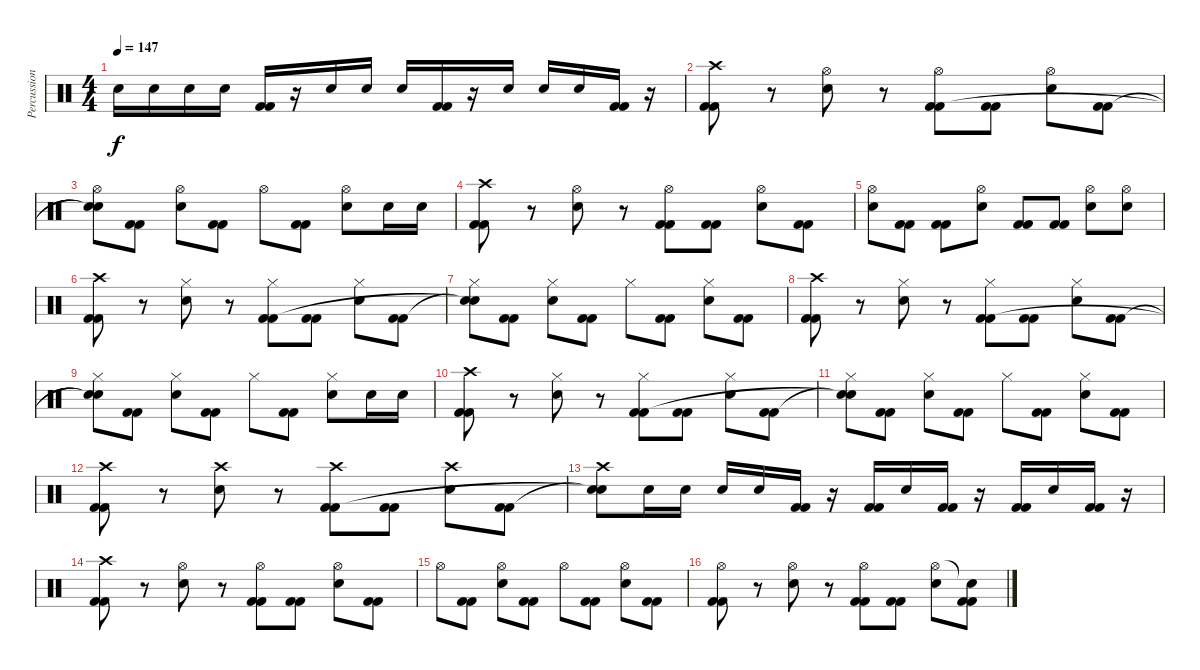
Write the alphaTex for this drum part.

\track ("Percussions" "Percussion") {instrument percussion}
\staff {score}
\articulation defaults
\ts (4 4)
\tempo 147
\clef neutral
\ks c "Snare (hit) 2".16{dy f} "Snare (hit) 2".16 "Snare (hit) 2".16 "Snare (hit) 2".16
("Kick (hit) 2" "Kick (hit) 2").16 r.16 "Snare (hit) 2".16 "Snare (hit) 2".16 "Snare (hit) 2".16 ("Kick (hit) 2" "Kick (hit) 2").16 r.16 "Snare (hit) 2".16 "Snare (hit) 2".16 "Snare (hit) 2".16 ("Kick (hit) 2" "Kick (hit) 2").16 r.16 |
("Crash high (hit)" "Kick (hit) 2" "Kick (hit) 2").8 r.8 ("Hi-Hat (open)" "Snare (hit) 2").8 r.8 ("Hi-Hat (open)" "Kick (hit) 2" "Kick (hit) 2").8 ("Kick (hit) 2" "Kick (hit) 2").8 ("Hi-Hat (open)" "Snare (hit) 2").8 ("Kick (hit) 2" "Kick (hit) 2").8 |
("Hi-Hat (open)" "Snare (hit)"{t} "Snare (hit)"{t}).8 ("Kick (hit) 2" "Kick (hit) 2").8 ("Hi-Hat (open)" "Snare (hit) 2").8 ("Kick (hit) 2" "Kick (hit) 2").8 "Hi-Hat (open)".8 ("Kick (hit) 2" "Kick (hit) 2").8 ("Hi-Hat (open)" "Snare (hit) 2").8 "Snare (hit) 2".16 "Snare (hit) 2".16 |
("Crash high (hit)" "Kick (hit) 2" "Kick (hit) 2").8 r.8 ("Hi-Hat (open)" "Snare (hit) 2").8 r.8 ("Hi-Hat (open)" "Kick (hit) 2" "Kick (hit) 2").8 ("Kick (hit) 2" "Kick (hit) 2").8 ("Hi-Hat (open)" "Snare (hit) 2").8 ("Kick (hit) 2" "Kick (hit) 2").8 |
("Hi-Hat (open)" "Snare (hit) 2").8 ("Kick (hit) 2" "Kick (hit) 2").8 ("Kick (hit) 2" "Kick (hit) 2").8 ("Hi-Hat (open)" "Snare (hit) 2").8 ("Kick (hit) 2" "Kick (hit) 2").8 ("Kick (hit) 2" "Kick (hit) 2").8 ("Hi-Hat (open)" "Snare (hit) 2").8 ("Hi-Hat (open)" "Snare (hit) 2").8 |
("Crash high (hit)" "Kick (hit) 2" "Kick (hit) 2").8 r.8 ("Hi-Hat (closed)" "Snare (hit) 2").8 r.8 ("Hi-Hat (closed)" "Kick (hit) 2" "Kick (hit) 2").8 ("Kick (hit) 2" "Kick (hit) 2").8 ("Hi-Hat (closed)" "Snare (hit) 2").8 ("Kick (hit) 2" "Kick (hit) 2").8 |
("Hi-Hat (closed)" "Snare (hit)"{t} "Snare (hit)"{t}).8 ("Kick (hit) 2" "Kick (hit) 2").8 ("Hi-Hat (closed)" "Snare (hit) 2").8 ("Kick (hit) 2" "Kick (hit) 2").8 "Hi-Hat (closed)".8 ("Kick (hit) 2" "Kick (hit) 2").8 ("Hi-Hat (closed)" "Snare (hit) 2").8 ("Kick (hit) 2" "Kick (hit) 2").8 |
("Crash high (hit)" "Kick (hit) 2" "Kick (hit) 2").8 r.8 ("Hi-Hat (closed)" "Snare (hit) 2").8 r.8 ("Hi-Hat (closed)" "Kick (hit) 2" "Kick (hit) 2").8 ("Kick (hit) 2" "Kick (hit) 2").8 ("Hi-Hat (closed)" "Snare (hit) 2").8 ("Kick (hit) 2" "Kick (hit) 2").8 |
("Hi-Hat (closed)" "Snare (hit)"{t} "Snare (hit)"{t}).8 ("Kick (hit) 2" "Kick (hit) 2").8 ("Hi-Hat (closed)" "Snare (hit) 2").8 ("Kick (hit) 2" "Kick (hit) 2").8 "Hi-Hat (closed)".8 ("Kick (hit) 2" "Kick (hit) 2").8 ("Hi-Hat (closed)" "Snare (hit) 2").8 "Snare (hit) 2".16 "Snare (hit) 2".16 |
("Crash high (hit)" "Kick (hit) 2" "Kick (hit) 2").8 r.8 ("Hi-Hat (closed)" "Snare (hit) 2").8 r.8 ("Hi-Hat (closed)" "Kick (hit) 2" "Kick (hit) 2").8 ("Kick (hit) 2" "Kick (hit) 2").8 ("Hi-Hat (closed)" "Snare (hit) 2").8 ("Kick (hit) 2" "Kick (hit) 2").8 |
("Hi-Hat (closed)" "Snare (hit)"{t} "Snare (hit)"{t}).8 ("Kick (hit) 2" "Kick (hit) 2").8 ("Hi-Hat (closed)" "Snare (hit) 2").8 ("Kick (hit) 2" "Kick (hit) 2").8 "Hi-Hat (closed)".8 ("Kick (hit) 2" "Kick (hit) 2").8 ("Hi-Hat (closed)" "Snare (hit) 2").8 ("Kick (hit) 2" "Kick (hit) 2").8 |
("Crash high (hit)" "Kick (hit) 2" "Kick (hit) 2").8 r.8 ("Crash high (hit)" "Snare (hit) 2").8 r.8 ("Crash high (hit)" "Kick (hit) 2" "Kick (hit) 2").8 ("Kick (hit) 2" "Kick (hit) 2").8 ("Crash high (hit)" "Snare (hit) 2").8 ("Kick (hit) 2" "Kick (hit) 2").8 |
("Crash high (hit)" "Snare (hit)"{t} "Snare (hit)"{t}).8 "Snare (hit) 2".16 "Snare (hit) 2".16 "Snare (hit) 2".16 "Snare (hit) 2".16 ("Kick (hit) 2" "Kick (hit) 2").16 r.16 ("Kick (hit) 2" "Kick (hit) 2").16 "Snare (hit) 2".16 ("Kick (hit) 2" "Kick (hit) 2").16 r.16 ("Kick (hit) 2" "Kick (hit) 2").16 "Snare (hit) 2".16 ("Kick (hit) 2" "Kick (hit) 2").16 r.16 |
("Crash high (hit)" "Kick (hit) 2" "Kick (hit) 2").8 r.8 ("Hi-Hat (open)" "Snare (hit) 2").8 r.8 ("Hi-Hat (open)" "Kick (hit) 2" "Kick (hit) 2").8 ("Kick (hit) 2" "Kick (hit) 2").8 ("Hi-Hat (open)" "Snare (hit) 2").8 ("Kick (hit) 2" "Kick (hit) 2").8 |
"Hi-Hat (open)".8 ("Kick (hit) 2" "Kick (hit) 2").8 ("Hi-Hat (open)" "Snare (hit) 2").8 ("Kick (hit) 2" "Kick (hit) 2").8 "Hi-Hat (open)".8 ("Kick (hit) 2" "Kick (hit) 2").8 ("Hi-Hat (open)" "Snare (hit) 2").8 ("Kick (hit) 2" "Kick (hit) 2").8 |
("Hi-Hat (open)" "Kick (hit) 2" "Kick (hit) 2").8 r.8 ("Hi-Hat (open)" "Snare (hit) 2").8 r.8 ("Hi-Hat (open)" "Kick (hit) 2" "Kick (hit) 2").8 ("Kick (hit) 2" "Kick (hit) 2").8 ("Hi-Hat (open)" "Snare (hit) 2").8 ("Snare (hit)"{t} "Kick (hit) 2" "Kick (hit) 2").8
